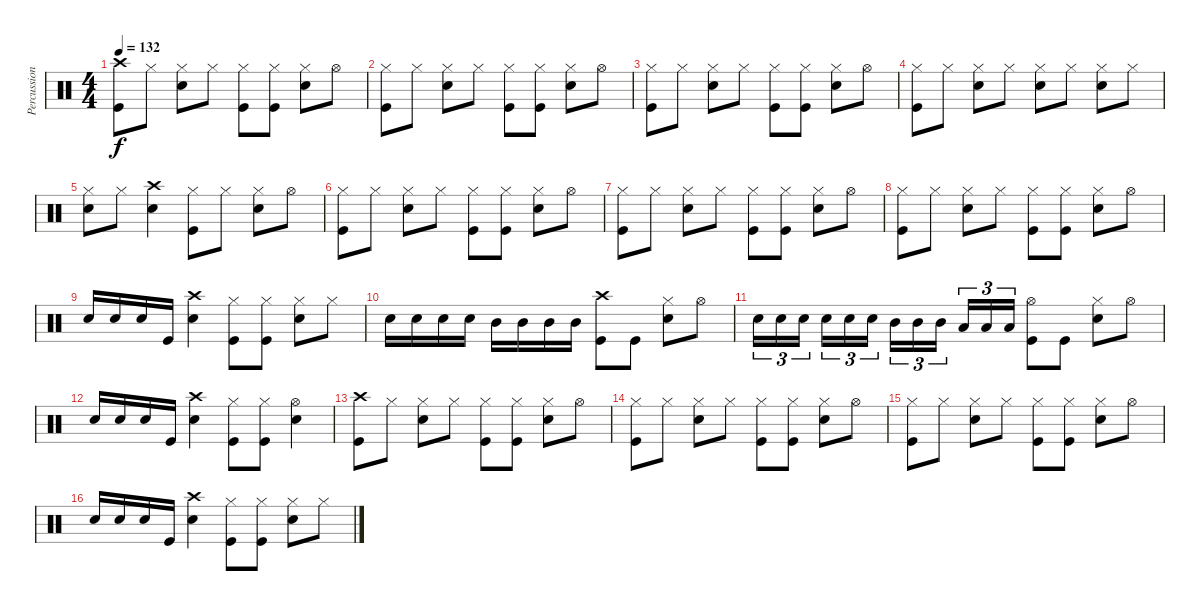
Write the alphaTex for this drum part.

\track ("Percussion" "Percussion") {instrument percussion}
\staff {score}
\articulation defaults
\ts (4 4)
\tempo 132
\clef neutral
\ks c
("Crash high (hit)" "Kick (hit)").8{dy f} "Hi-Hat (closed)".8 ("Hi-Hat (closed)" "Electric Snare (hit)").8 "Hi-Hat (closed)".8 ("Hi-Hat (closed)" "Kick (hit)").8 ("Hi-Hat (closed)" "Kick (hit)").8 ("Hi-Hat (closed)" "Electric Snare (hit)").8 "Hi-Hat (open)".8 |
("Hi-Hat (closed)" "Kick (hit)").8 "Hi-Hat (closed)".8 ("Hi-Hat (closed)" "Electric Snare (hit)").8 "Hi-Hat (closed)".8 ("Hi-Hat (closed)" "Kick (hit)").8 ("Hi-Hat (closed)" "Kick (hit)").8 ("Hi-Hat (closed)" "Electric Snare (hit)").8 "Hi-Hat (open)".8 |
("Hi-Hat (closed)" "Kick (hit)").8 "Hi-Hat (closed)".8 ("Hi-Hat (closed)" "Electric Snare (hit)").8 "Hi-Hat (closed)".8 ("Hi-Hat (closed)" "Kick (hit)").8 ("Hi-Hat (closed)" "Kick (hit)").8 ("Hi-Hat (closed)" "Electric Snare (hit)").8 "Hi-Hat (open)".8 |
("Hi-Hat (closed)" "Kick (hit)").8 "Hi-Hat (closed)".8 ("Hi-Hat (closed)" "Electric Snare (hit)").8 "Hi-Hat (closed)".8 ("Hi-Hat (closed)" "Electric Snare (hit)").8 "Hi-Hat (closed)".8 ("Hi-Hat (closed)" "Electric Snare (hit)").8 "Hi-Hat (closed)".8 |
("Hi-Hat (closed)" "Electric Snare (hit)").8 "Hi-Hat (closed)".8 ("Crash high (hit)" "Electric Snare (hit)").4 ("Hi-Hat (closed)" "Kick (hit)").8 "Hi-Hat (closed)".8 ("Hi-Hat (closed)" "Electric Snare (hit)").8 "Hi-Hat (open)".8 |
("Hi-Hat (closed)" "Kick (hit)").8 "Hi-Hat (closed)".8 ("Hi-Hat (closed)" "Electric Snare (hit)").8 "Hi-Hat (closed)".8 ("Hi-Hat (closed)" "Kick (hit)").8 ("Hi-Hat (closed)" "Kick (hit)").8 ("Hi-Hat (closed)" "Electric Snare (hit)").8 "Hi-Hat (open)".8 |
("Hi-Hat (closed)" "Kick (hit)").8 "Hi-Hat (closed)".8 ("Hi-Hat (closed)" "Electric Snare (hit)").8 "Hi-Hat (closed)".8 ("Hi-Hat (closed)" "Kick (hit)").8 ("Hi-Hat (closed)" "Kick (hit)").8 ("Hi-Hat (closed)" "Electric Snare (hit)").8 "Hi-Hat (open)".8 |
("Hi-Hat (closed)" "Kick (hit)").8 "Hi-Hat (closed)".8 ("Hi-Hat (closed)" "Electric Snare (hit)").8 "Hi-Hat (closed)".8 ("Hi-Hat (closed)" "Kick (hit)").8 ("Hi-Hat (closed)" "Kick (hit)").8 ("Hi-Hat (closed)" "Electric Snare (hit)").8 "Hi-Hat (open)".8 |
"Electric Snare (hit)".16 "Electric Snare (hit)".16 "Electric Snare (hit)".16 "Kick (hit)".16 ("Crash high (hit)" "Electric Snare (hit)").4 ("Hi-Hat (closed)" "Kick (hit)").8 ("Hi-Hat (closed)" "Kick (hit)").8 ("Hi-Hat (closed)" "Electric Snare (hit)").8 "Hi-Hat (closed)".8 |
"Electric Snare (hit)".16 "Electric Snare (hit)".16 "Electric Snare (hit)".16 "Electric Snare (hit)".16 "Mid Tom (hit)".16 "Mid Tom (hit)".16 "Mid Tom (hit)".16 "Mid Tom (hit)".16 ("Crash high (hit)" "Kick (hit)").8 "Kick (hit)".8 ("Hi-Hat (closed)" "Electric Snare (hit)").8 "Hi-Hat (open)".8 |
"Electric Snare (hit)".16{tu (3 2)} "Electric Snare (hit)".16{tu (3 2)} "Electric Snare (hit)".16{tu (3 2)} "Electric Snare (hit)".16{tu (3 2)} "Electric Snare (hit)".16{tu (3 2)} "Electric Snare (hit)".16{tu (3 2)} "Mid Tom (hit)".16{tu (3 2)} "Mid Tom (hit)".16{tu (3 2)} "Mid Tom (hit)".16{tu (3 2)} "Low Tom (hit)".16{tu (3 2)} "Low Tom (hit)".16{tu (3 2)} "Low Tom (hit)".16{tu (3 2)} ("Hi-Hat (open)" "Kick (hit)").8 "Kick (hit)".8 ("Hi-Hat (closed)" "Electric Snare (hit)").8 "Hi-Hat (open)".8 |
"Electric Snare (hit)".16 "Electric Snare (hit)".16 "Electric Snare (hit)".16 "Kick (hit)".16 ("Crash high (hit)" "Electric Snare (hit)").4 ("Hi-Hat (closed)" "Kick (hit)").8 ("Hi-Hat (closed)" "Kick (hit)").8 ("Hi-Hat (open)" "Electric Snare (hit)").4 |
("Crash high (hit)" "Kick (hit)").8 "Hi-Hat (closed)".8 ("Hi-Hat (closed)" "Electric Snare (hit)").8 "Hi-Hat (closed)".8 ("Hi-Hat (closed)" "Kick (hit)").8 ("Hi-Hat (closed)" "Kick (hit)").8 ("Hi-Hat (closed)" "Electric Snare (hit)").8 "Hi-Hat (open)".8 |
("Hi-Hat (closed)" "Kick (hit)").8 "Hi-Hat (closed)".8 ("Hi-Hat (closed)" "Electric Snare (hit)").8 "Hi-Hat (closed)".8 ("Hi-Hat (closed)" "Kick (hit)").8 ("Hi-Hat (closed)" "Kick (hit)").8 ("Hi-Hat (closed)" "Electric Snare (hit)").8 "Hi-Hat (open)".8 |
("Hi-Hat (closed)" "Kick (hit)").8 "Hi-Hat (closed)".8 ("Hi-Hat (closed)" "Electric Snare (hit)").8 "Hi-Hat (closed)".8 ("Hi-Hat (closed)" "Kick (hit)").8 ("Hi-Hat (closed)" "Kick (hit)").8 ("Hi-Hat (closed)" "Electric Snare (hit)").8 "Hi-Hat (open)".8 |
"Electric Snare (hit)".16 "Electric Snare (hit)".16 "Electric Snare (hit)".16 "Kick (hit)".16 ("Crash high (hit)" "Electric Snare (hit)").4 ("Hi-Hat (closed)" "Kick (hit)").8 ("Hi-Hat (closed)" "Kick (hit)").8 ("Hi-Hat (closed)" "Electric Snare (hit)").8 "Hi-Hat (closed)".8
